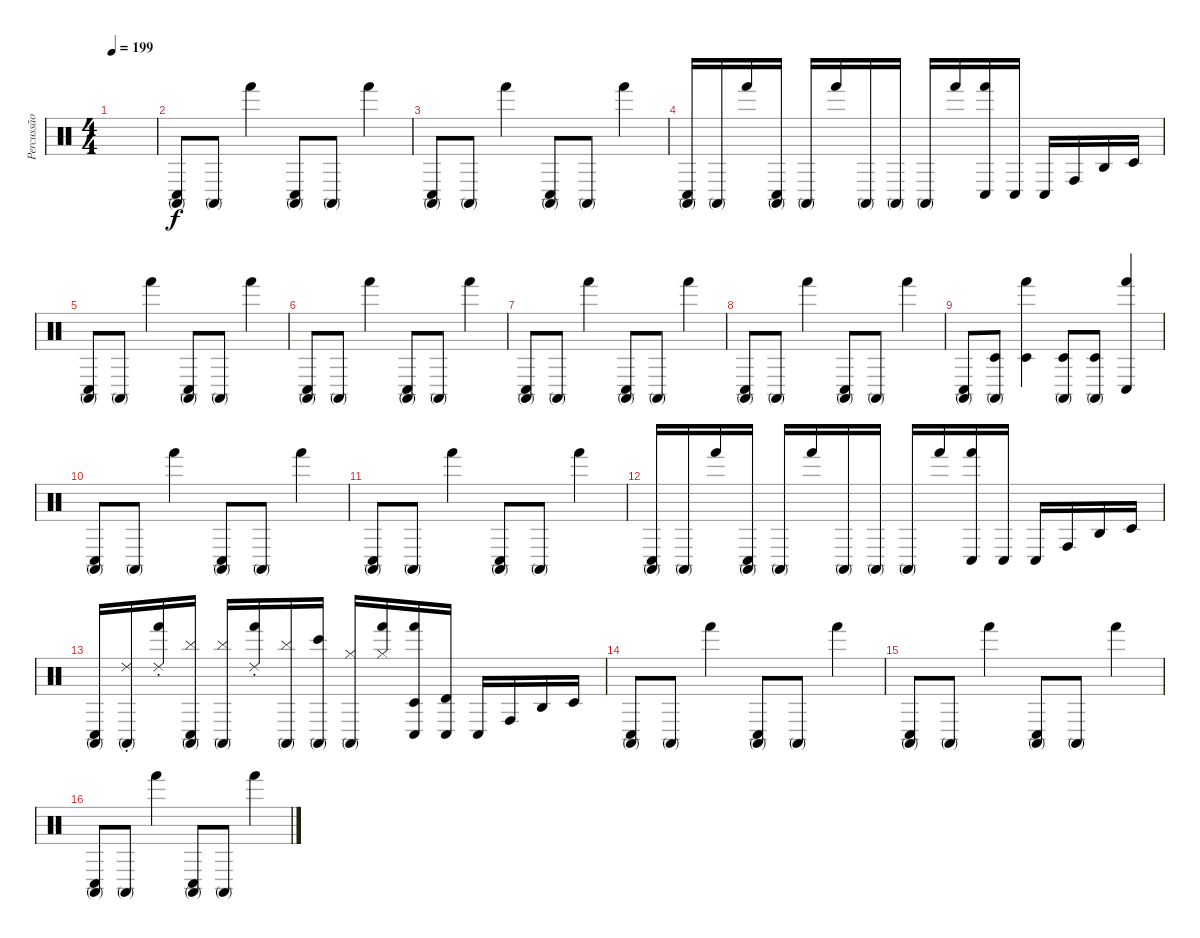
\track ("Percussão" "Percussão") {instrument percussion}
\staff {score}
\articulation defaults
\ts (4 4)
\tempo 199
\clef neutral
\ks c
|
("Conga high (mute)" "Conga low (hit)").8 "Conga high (mute)".8 "Hand (hit)".4 ("Conga high (mute)" "Conga low (hit)").8 "Conga high (mute)".8 "Hand (hit)".4 |
("Conga high (mute)" "Conga low (hit)").8 "Conga high (mute)".8 "Hand (hit)".4 ("Conga high (mute)" "Conga low (hit)").8 "Conga high (mute)".8 "Hand (hit)".4 |
("Conga high (mute)" "Conga low (hit)").16 "Conga high (mute)".16 "Hand (hit)".16 ("Conga high (mute)" "Conga low (hit)").16 "Conga high (mute)".16 "Hand (hit)".16 "Conga high (mute)".16 "Conga high (mute)".16 "Conga high (mute)".16 "Hand (hit)".16 ("Conga low (hit)" "Hand (hit)").16 "Conga low (hit)".16 "Conga low (hit)".16 "Conga high (hit)".16 "Agogo high (hit)".16 "Timbale low (hit)".16 |
("Conga high (mute)" "Conga low (hit)").8 "Conga high (mute)".8 "Hand (hit)".4 ("Conga high (mute)" "Conga low (hit)").8 "Conga high (mute)".8 "Hand (hit)".4 |
("Conga high (mute)" "Conga low (hit)").8 "Conga high (mute)".8 "Hand (hit)".4 ("Conga high (mute)" "Conga low (hit)").8 "Conga high (mute)".8 "Hand (hit)".4 |
("Conga high (mute)" "Conga low (hit)").8 "Conga high (mute)".8 "Hand (hit)".4 ("Conga high (mute)" "Conga low (hit)").8 "Conga high (mute)".8 "Hand (hit)".4 |
("Conga high (mute)" "Conga low (hit)").8 "Conga high (mute)".8 "Hand (hit)".4 ("Conga high (mute)" "Conga low (hit)").8 "Conga high (mute)".8 "Hand (hit)".4 |
("Conga high (mute)" "Conga low (hit)").8 ("Conga high (mute)" "Timbale low (hit)").8 ("Hand (hit)" "Timbale low (hit)").4 ("Conga high (mute)" "Timbale low (hit)").8 ("Conga high (mute)" "Timbale low (hit)").8 ("Hand (hit)" "Conga low (hit)").4 |
("Conga high (mute)" "Conga low (hit)").8 "Conga high (mute)".8 "Hand (hit)".4 ("Conga high (mute)" "Conga low (hit)").8 "Conga high (mute)".8 "Hand (hit)".4 |
("Conga high (mute)" "Conga low (hit)").8 "Conga high (mute)".8 "Hand (hit)".4 ("Conga high (mute)" "Conga low (hit)").8 "Conga high (mute)".8 "Hand (hit)".4 |
("Conga high (mute)" "Conga low (hit)").16 "Conga high (mute)".16 "Hand (hit)".16 ("Conga high (mute)" "Conga low (hit)").16 "Conga high (mute)".16 "Hand (hit)".16 "Conga high (mute)".16 "Conga high (mute)".16 "Conga high (mute)".16 "Hand (hit)".16 ("Conga low (hit)" "Hand (hit)").16 "Conga low (hit)".16 "Conga low (hit)".16 "Conga high (hit)".16 "Agogo high (hit)".16 "Timbale low (hit)".16 |
("Conga high (mute)" "Conga low (hit)").16 ("Conga high (mute)" "Ride (choke) 2").16 ("Hand (hit)" "Ride (choke) 2").16 ("Conga high (mute)" "Conga low (hit)" "Cymbal (hit)").16 ("Conga high (mute)" "Cymbal (hit)").16 ("Hand (hit)" "Ride (choke) 2").16 ("Conga high (mute)" "Cymbal (hit)").16 ("Conga high (mute)" "Bongo High (hit)").16 ("Conga high (mute)" "Hi-Hat (closed)").16 ("Hand (hit)" "Hi-Hat (closed)").16 ("Conga low (hit)" "Hand (hit)" "Timbale low (hit)").16 ("Conga low (hit)" "Timbale high (hit)").16 "Conga low (hit)".16 "Conga high (hit)".16 "Agogo high (hit)".16 "Timbale low (hit)".16 |
("Conga high (mute)" "Conga low (hit)").8 "Conga high (mute)".8 "Hand (hit)".4 ("Conga high (mute)" "Conga low (hit)").8 "Conga high (mute)".8 "Hand (hit)".4 |
("Conga high (mute)" "Conga low (hit)").8 "Conga high (mute)".8 "Hand (hit)".4 ("Conga high (mute)" "Conga low (hit)").8 "Conga high (mute)".8 "Hand (hit)".4 |
("Conga high (mute)" "Conga low (hit)").8 "Conga high (mute)".8 "Hand (hit)".4 ("Conga high (mute)" "Conga low (hit)").8 "Conga high (mute)".8 "Hand (hit)".4
